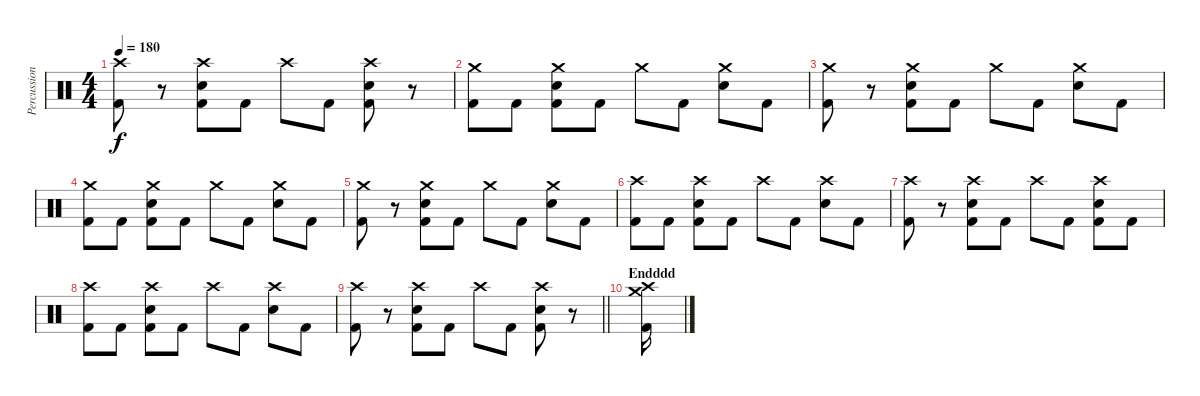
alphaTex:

\track ("Percussion" "Percussion") {instrument percussion}
\staff {score}
\articulation defaults
\ts (4 4)
\tempo 180
\clef neutral
\ks c
("Crash high (hit)" "Kick (hit) 2").8{dy f} r.8 ("Crash high (hit)" "Electric Snare (hit)" "Kick (hit) 2").8 "Kick (hit) 2".8 "Crash high (hit)".8 "Kick (hit) 2".8 ("Crash high (hit)" "Electric Snare (hit)" "Kick (hit) 2").8 r.8 |
("Crash medium (hit)" "Kick (hit) 2").8 "Kick (hit) 2".8 ("Crash medium (hit)" "Electric Snare (hit)" "Kick (hit) 2").8 "Kick (hit) 2".8 "Crash medium (hit)".8 "Kick (hit) 2".8 ("Crash medium (hit)" "Electric Snare (hit)").8 "Kick (hit) 2".8 |
("Crash medium (hit)" "Kick (hit) 2").8 r.8 ("Crash medium (hit)" "Electric Snare (hit)" "Kick (hit) 2").8 "Kick (hit) 2".8 "Crash medium (hit)".8 "Kick (hit) 2".8 ("Crash medium (hit)" "Electric Snare (hit)").8 "Kick (hit) 2".8 |
("Crash medium (hit)" "Kick (hit) 2").8 "Kick (hit) 2".8 ("Crash medium (hit)" "Electric Snare (hit)" "Kick (hit) 2").8 "Kick (hit) 2".8 "Crash medium (hit)".8 "Kick (hit) 2".8 ("Crash medium (hit)" "Electric Snare (hit)").8 "Kick (hit) 2".8 |
("Crash medium (hit)" "Kick (hit) 2").8 r.8 ("Crash medium (hit)" "Electric Snare (hit)" "Kick (hit) 2").8 "Kick (hit) 2".8 "Crash medium (hit)".8 "Kick (hit) 2".8 ("Crash medium (hit)" "Electric Snare (hit)").8 "Kick (hit) 2".8 |
("Crash high (hit)" "Kick (hit) 2").8 "Kick (hit) 2".8 ("Crash high (hit)" "Electric Snare (hit)" "Kick (hit) 2").8 "Kick (hit) 2".8 "Crash high (hit)".8 "Kick (hit) 2".8 ("Crash high (hit)" "Electric Snare (hit)").8 "Kick (hit) 2".8 |
("Crash high (hit)" "Kick (hit) 2").8 r.8 ("Crash high (hit)" "Electric Snare (hit)" "Kick (hit) 2").8 "Kick (hit) 2".8 "Crash high (hit)".8 "Kick (hit) 2".8 ("Crash high (hit)" "Electric Snare (hit)" "Kick (hit) 2").8 "Kick (hit) 2".8 |
("Crash high (hit)" "Kick (hit) 2").8 "Kick (hit) 2".8 ("Crash high (hit)" "Electric Snare (hit)" "Kick (hit) 2").8 "Kick (hit) 2".8 "Crash high (hit)".8 "Kick (hit) 2".8 ("Crash high (hit)" "Electric Snare (hit)").8 "Kick (hit) 2".8 |
\barLineRight lightlight
("Crash high (hit)" "Kick (hit) 2").8 r.8 ("Crash high (hit)" "Electric Snare (hit)" "Kick (hit) 2").8 "Kick (hit) 2".8 "Crash high (hit)".8 "Kick (hit) 2".8 ("Crash high (hit)" "Electric Snare (hit)" "Kick (hit) 2").8 r.8 |
\section ("" "Endddd")
("Crash high (hit)" "Crash medium (hit)" "Kick (hit) 2").16
